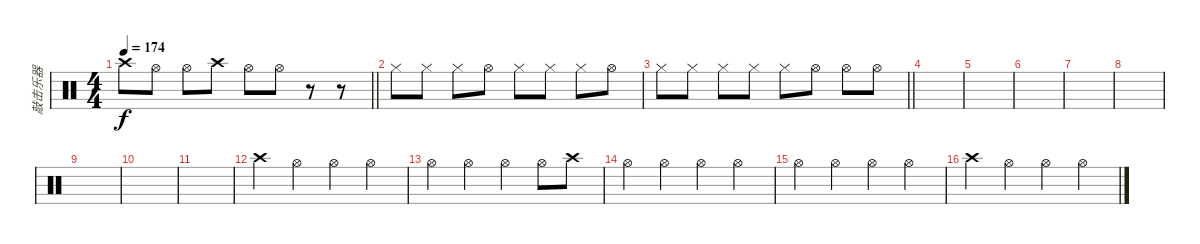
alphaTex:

\track ("敲击乐器" "敲击乐器") {instrument percussion}
\staff {score}
\articulation defaults
\ts (4 4)
\tempo 174
\clef neutral
\barLineRight lightlight
\ks c "Crash high (hit)".8{dy f} "Hi-Hat (open)".8 "Hi-Hat (open)".8 "Crash high (hit)".8 "Hi-Hat (open)".8 "Hi-Hat (open)".8
r.8 r.8 |
"Hi-Hat (closed)".8 "Hi-Hat (closed)".8 "Hi-Hat (closed)".8 "Hi-Hat (open)".8 "Hi-Hat (closed)".8 "Hi-Hat (closed)".8 "Hi-Hat (closed)".8 "Hi-Hat (open)".8 |
\barLineRight lightlight "Hi-Hat (closed)".8 "Hi-Hat (closed)".8 "Hi-Hat (closed)".8 "Hi-Hat (closed)".8 "Hi-Hat (closed)".8 "Hi-Hat (open)".8 "Hi-Hat (open)".8 "Hi-Hat (open)".8
|
|
|
|
|
|
|
|
|
"Crash high (hit)".4 "Hi-Hat (open)".4 "Hi-Hat (open)".4 "Hi-Hat (open)".4 |
"Hi-Hat (open)".4 "Hi-Hat (open)".4 "Hi-Hat (open)".4 "Hi-Hat (open)".8 "Crash high (hit)".8 |
"Hi-Hat (open)".4 "Hi-Hat (open)".4 "Hi-Hat (open)".4 "Hi-Hat (open)".4 |
"Hi-Hat (open)".4 "Hi-Hat (open)".4 "Hi-Hat (open)".4 "Hi-Hat (open)".4 |
"Crash high (hit)".4 "Hi-Hat (open)".4 "Hi-Hat (open)".4 "Hi-Hat (open)".4
